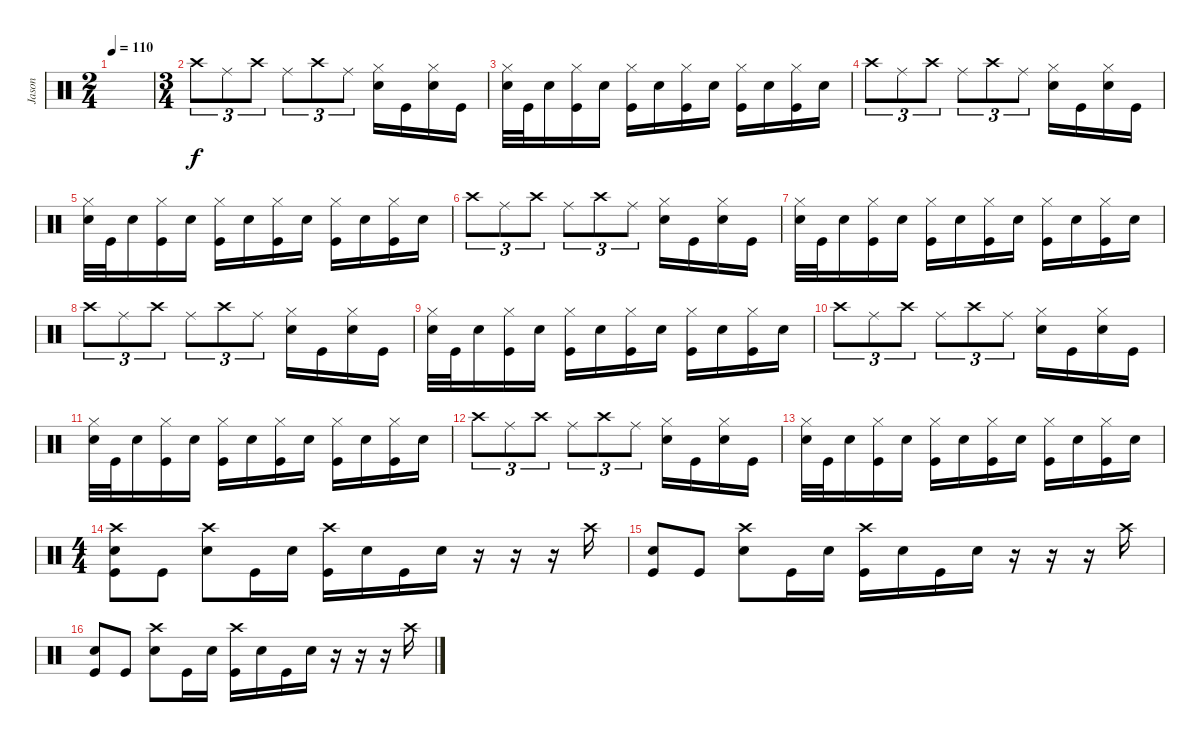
\track ("Jason" "Jason") {instrument percussion}
\staff {score}
\articulation defaults
\ts (2 4)
\tempo 110
\clef neutral
\ks c
|
\ts (3 4)
"Crash high (hit)".8{tu (3 2)} "Ride (middle)".8{tu (3 2)} "Crash high (hit)".8{tu (3 2)} "Ride (middle)".8{tu (3 2)} "Crash high (hit)".8{tu (3 2)} "Ride (middle)".8{tu (3 2)} ("Hi-Hat (closed)" "Snare (hit) 2").16 "Kick (hit)".16 ("Hi-Hat (closed)" "Snare (hit) 2").16 "Kick (hit)".16 |
("Hi-Hat (closed)" "Snare (hit) 2").32 "Kick (hit)".32 "Snare (hit) 2".16 ("Hi-Hat (closed)" "Kick (hit)").16 "Snare (hit) 2".16 ("Hi-Hat (closed)" "Kick (hit)").16 "Snare (hit) 2".16 ("Hi-Hat (closed)" "Kick (hit)").16 "Snare (hit) 2".16 ("Hi-Hat (closed)" "Kick (hit)").16 "Snare (hit) 2".16 ("Hi-Hat (closed)" "Kick (hit)").16 "Snare (hit) 2".16 |
"Crash high (hit)".8{tu (3 2)} "Ride (middle)".8{tu (3 2)} "Crash high (hit)".8{tu (3 2)} "Ride (middle)".8{tu (3 2)} "Crash high (hit)".8{tu (3 2)} "Ride (middle)".8{tu (3 2)} ("Hi-Hat (closed)" "Snare (hit) 2").16 "Kick (hit)".16 ("Hi-Hat (closed)" "Snare (hit) 2").16 "Kick (hit)".16 |
("Hi-Hat (closed)" "Snare (hit) 2").32 "Kick (hit)".32 "Snare (hit) 2".16 ("Hi-Hat (closed)" "Kick (hit)").16 "Snare (hit) 2".16 ("Hi-Hat (closed)" "Kick (hit)").16 "Snare (hit) 2".16 ("Hi-Hat (closed)" "Kick (hit)").16 "Snare (hit) 2".16 ("Hi-Hat (closed)" "Kick (hit)").16 "Snare (hit) 2".16 ("Hi-Hat (closed)" "Kick (hit)").16 "Snare (hit) 2".16 |
"Crash high (hit)".8{tu (3 2)} "Ride (middle)".8{tu (3 2)} "Crash high (hit)".8{tu (3 2)} "Ride (middle)".8{tu (3 2)} "Crash high (hit)".8{tu (3 2)} "Ride (middle)".8{tu (3 2)} ("Hi-Hat (closed)" "Snare (hit) 2").16 "Kick (hit)".16 ("Hi-Hat (closed)" "Snare (hit) 2").16 "Kick (hit)".16 |
("Hi-Hat (closed)" "Snare (hit) 2").32 "Kick (hit)".32 "Snare (hit) 2".16 ("Hi-Hat (closed)" "Kick (hit)").16 "Snare (hit) 2".16 ("Hi-Hat (closed)" "Kick (hit)").16 "Snare (hit) 2".16 ("Hi-Hat (closed)" "Kick (hit)").16 "Snare (hit) 2".16 ("Hi-Hat (closed)" "Kick (hit)").16 "Snare (hit) 2".16 ("Hi-Hat (closed)" "Kick (hit)").16 "Snare (hit) 2".16 |
"Crash high (hit)".8{tu (3 2)} "Ride (middle)".8{tu (3 2)} "Crash high (hit)".8{tu (3 2)} "Ride (middle)".8{tu (3 2)} "Crash high (hit)".8{tu (3 2)} "Ride (middle)".8{tu (3 2)} ("Hi-Hat (closed)" "Snare (hit) 2").16 "Kick (hit)".16 ("Hi-Hat (closed)" "Snare (hit) 2").16 "Kick (hit)".16 |
("Hi-Hat (closed)" "Snare (hit) 2").32 "Kick (hit)".32 "Snare (hit) 2".16 ("Hi-Hat (closed)" "Kick (hit)").16 "Snare (hit) 2".16 ("Hi-Hat (closed)" "Kick (hit)").16 "Snare (hit) 2".16 ("Hi-Hat (closed)" "Kick (hit)").16 "Snare (hit) 2".16 ("Hi-Hat (closed)" "Kick (hit)").16 "Snare (hit) 2".16 ("Hi-Hat (closed)" "Kick (hit)").16 "Snare (hit) 2".16 |
"Crash high (hit)".8{tu (3 2)} "Ride (middle)".8{tu (3 2)} "Crash high (hit)".8{tu (3 2)} "Ride (middle)".8{tu (3 2)} "Crash high (hit)".8{tu (3 2)} "Ride (middle)".8{tu (3 2)} ("Hi-Hat (closed)" "Snare (hit) 2").16 "Kick (hit)".16 ("Hi-Hat (closed)" "Snare (hit) 2").16 "Kick (hit)".16 |
("Hi-Hat (closed)" "Snare (hit) 2").32 "Kick (hit)".32 "Snare (hit) 2".16 ("Hi-Hat (closed)" "Kick (hit)").16 "Snare (hit) 2".16 ("Hi-Hat (closed)" "Kick (hit)").16 "Snare (hit) 2".16 ("Hi-Hat (closed)" "Kick (hit)").16 "Snare (hit) 2".16 ("Hi-Hat (closed)" "Kick (hit)").16 "Snare (hit) 2".16 ("Hi-Hat (closed)" "Kick (hit)").16 "Snare (hit) 2".16 |
"Crash high (hit)".8{tu (3 2)} "Ride (middle)".8{tu (3 2)} "Crash high (hit)".8{tu (3 2)} "Ride (middle)".8{tu (3 2)} "Crash high (hit)".8{tu (3 2)} "Ride (middle)".8{tu (3 2)} ("Hi-Hat (closed)" "Snare (hit) 2").16 "Kick (hit)".16 ("Hi-Hat (closed)" "Snare (hit) 2").16 "Kick (hit)".16 |
("Hi-Hat (closed)" "Snare (hit) 2").32 "Kick (hit)".32 "Snare (hit) 2".16 ("Hi-Hat (closed)" "Kick (hit)").16 "Snare (hit) 2".16 ("Hi-Hat (closed)" "Kick (hit)").16 "Snare (hit) 2".16 ("Hi-Hat (closed)" "Kick (hit)").16 "Snare (hit) 2".16 ("Hi-Hat (closed)" "Kick (hit)").16 "Snare (hit) 2".16 ("Hi-Hat (closed)" "Kick (hit)").16 "Snare (hit) 2".16 |
\ts (4 4)
("Snare (hit) 2" "Crash high (hit)" "Kick (hit)").8 "Kick (hit)".8 ("Crash high (hit)" "Snare (hit) 2").8 "Kick (hit)".16 "Snare (hit) 2".16 ("Crash high (hit)" "Kick (hit)").16 "Snare (hit) 2".16 "Kick (hit)".16 "Snare (hit) 2".16 r.16 r.16 r.16 "Crash high (hit)".16 |
("Snare (hit) 2" "Kick (hit)").8 "Kick (hit)".8 ("Crash high (hit)" "Snare (hit) 2").8 "Kick (hit)".16 "Snare (hit) 2".16 ("Crash high (hit)" "Kick (hit)").16 "Snare (hit) 2".16 "Kick (hit)".16 "Snare (hit) 2".16 r.16 r.16 r.16 "Crash high (hit)".16 |
("Snare (hit) 2" "Kick (hit)").8 "Kick (hit)".8 ("Crash high (hit)" "Snare (hit) 2").8 "Kick (hit)".16 "Snare (hit) 2".16 ("Crash high (hit)" "Kick (hit)").16 "Snare (hit) 2".16 "Kick (hit)".16 "Snare (hit) 2".16 r.16 r.16 r.16 "Crash high (hit)".16
